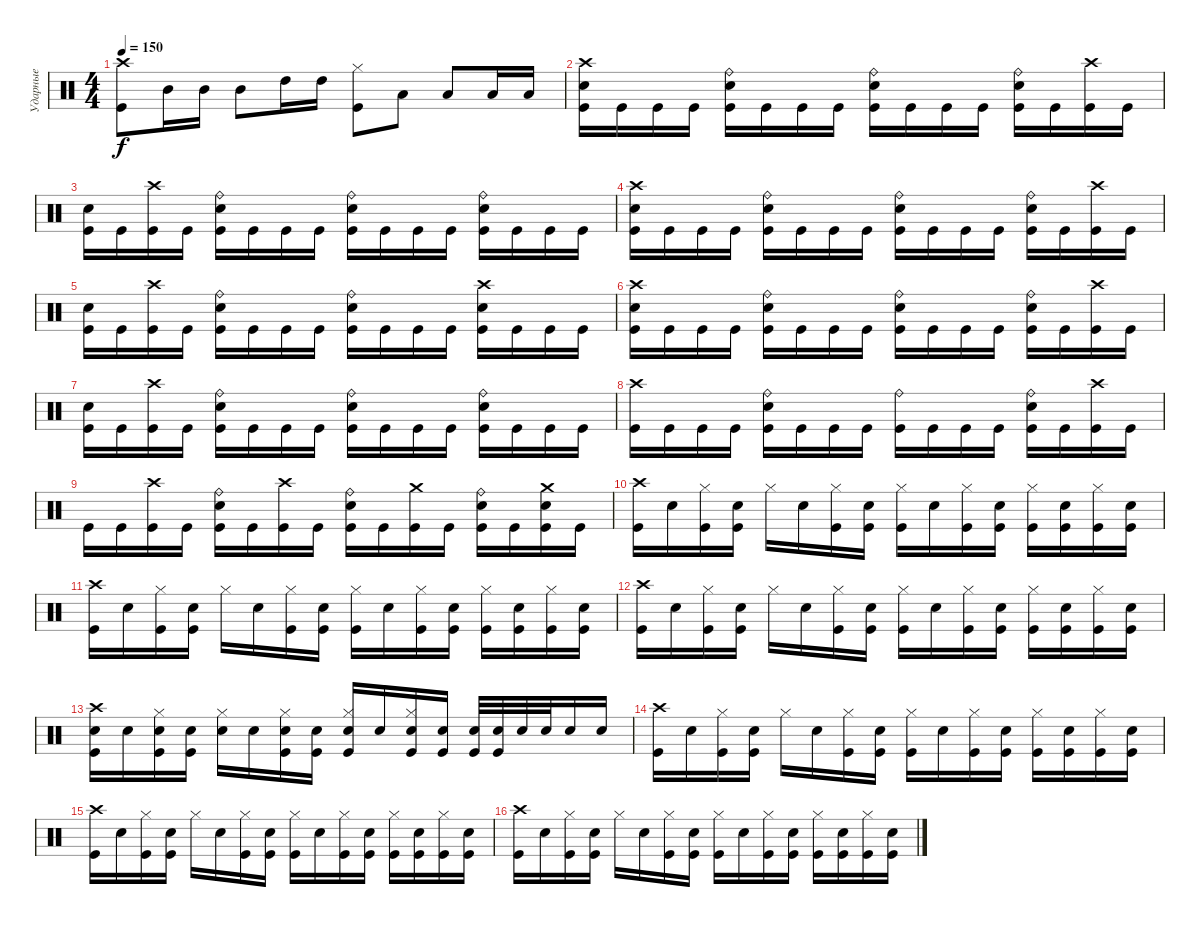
\track ("Ударные" "Ударные") {instrument percussion}
\staff {score}
\articulation defaults
\ts (4 4)
\tempo 150
\clef neutral
\ks c
("Crash high (hit)" "Kick (hit)").8{dy f} "Mid Tom (hit)".16 "Mid Tom (hit)".16 "Mid Tom (hit)".8 "High Tom (hit)".16 "High Tom (hit)".16 ("Hi-Hat (closed)" "Kick (hit)").8 "Low Tom (hit)".8 "Low Tom (hit)".8 "Low Tom (hit)".16 "Low Tom (hit)".16 |
("Crash high (hit)" "Electric Snare (hit)" "Kick (hit)").16 "Kick (hit)".16 "Kick (hit)".16 "Kick (hit)".16 ("Ride (bell)" "Electric Snare (hit)" "Kick (hit)").16 "Kick (hit)".16 "Kick (hit)".16 "Kick (hit)".16 ("Ride (bell)" "Electric Snare (hit)" "Kick (hit)").16 "Kick (hit)".16 "Kick (hit)".16 "Kick (hit)".16 ("Ride (bell)" "Electric Snare (hit)" "Kick (hit)").16 "Kick (hit)".16 ("Crash high (hit)" "Kick (hit)").16 "Kick (hit)".16 |
("Electric Snare (hit)" "Kick (hit)").16 "Kick (hit)".16 ("Crash high (hit)" "Kick (hit)").16 "Kick (hit)".16 ("Ride (bell)" "Electric Snare (hit)" "Kick (hit)").16 "Kick (hit)".16 "Kick (hit)".16 "Kick (hit)".16 ("Ride (bell)" "Electric Snare (hit)" "Kick (hit)").16 "Kick (hit)".16 "Kick (hit)".16 "Kick (hit)".16 ("Ride (bell)" "Electric Snare (hit)" "Kick (hit)").16 "Kick (hit)".16 "Kick (hit)".16 "Kick (hit)".16 |
("Crash high (hit)" "Electric Snare (hit)" "Kick (hit)").16 "Kick (hit)".16 "Kick (hit)".16 "Kick (hit)".16 ("Ride (bell)" "Electric Snare (hit)" "Kick (hit)").16 "Kick (hit)".16 "Kick (hit)".16 "Kick (hit)".16 ("Ride (bell)" "Electric Snare (hit)" "Kick (hit)").16 "Kick (hit)".16 "Kick (hit)".16 "Kick (hit)".16 ("Ride (bell)" "Electric Snare (hit)" "Kick (hit)").16 "Kick (hit)".16 ("Crash high (hit)" "Kick (hit)").16 "Kick (hit)".16 |
("Electric Snare (hit)" "Kick (hit)").16 "Kick (hit)".16 ("Crash high (hit)" "Kick (hit)").16 "Kick (hit)".16 ("Ride (bell)" "Electric Snare (hit)" "Kick (hit)").16 "Kick (hit)".16 "Kick (hit)".16 "Kick (hit)".16 ("Ride (bell)" "Electric Snare (hit)" "Kick (hit)").16 "Kick (hit)".16 "Kick (hit)".16 "Kick (hit)".16 ("Crash high (hit)" "Electric Snare (hit)" "Kick (hit)").16 "Kick (hit)".16 "Kick (hit)".16 "Kick (hit)".16 |
("Crash high (hit)" "Electric Snare (hit)" "Kick (hit)").16 "Kick (hit)".16 "Kick (hit)".16 "Kick (hit)".16 ("Ride (bell)" "Electric Snare (hit)" "Kick (hit)").16 "Kick (hit)".16 "Kick (hit)".16 "Kick (hit)".16 ("Ride (bell)" "Electric Snare (hit)" "Kick (hit)").16 "Kick (hit)".16 "Kick (hit)".16 "Kick (hit)".16 ("Ride (bell)" "Electric Snare (hit)" "Kick (hit)").16 "Kick (hit)".16 ("Crash high (hit)" "Kick (hit)").16 "Kick (hit)".16 |
("Electric Snare (hit)" "Kick (hit)").16 "Kick (hit)".16 ("Crash high (hit)" "Kick (hit)").16 "Kick (hit)".16 ("Ride (bell)" "Electric Snare (hit)" "Kick (hit)").16 "Kick (hit)".16 "Kick (hit)".16 "Kick (hit)".16 ("Ride (bell)" "Electric Snare (hit)" "Kick (hit)").16 "Kick (hit)".16 "Kick (hit)".16 "Kick (hit)".16 ("Ride (bell)" "Electric Snare (hit)" "Kick (hit)").16 "Kick (hit)".16 "Kick (hit)".16 "Kick (hit)".16 |
("Crash high (hit)" "Kick (hit)").16 "Kick (hit)".16 "Kick (hit)".16 "Kick (hit)".16 ("Ride (bell)" "Electric Snare (hit)" "Kick (hit)").16 "Kick (hit)".16 "Kick (hit)".16 "Kick (hit)".16 ("Ride (bell)" "Kick (hit)").16 "Kick (hit)".16 "Kick (hit)".16 "Kick (hit)".16 ("Ride (bell)" "Electric Snare (hit)" "Kick (hit)").16 "Kick (hit)".16 ("Crash high (hit)" "Kick (hit)").16 "Kick (hit)".16 |
"Kick (hit)".16 "Kick (hit)".16 ("Crash high (hit)" "Kick (hit)").16 "Kick (hit)".16 ("Ride (bell)" "Electric Snare (hit)" "Kick (hit)").16 "Kick (hit)".16 ("Crash high (hit)" "Kick (hit)").16 "Kick (hit)".16 ("Ride (bell)" "Electric Snare (hit)" "Kick (hit)").16 "Kick (hit)".16 ("Crash medium (hit)" "Kick (hit)").16 "Kick (hit)".16 ("Ride (bell)" "Electric Snare (hit)" "Kick (hit)").16 "Kick (hit)".16 ("Crash medium (hit)" "Electric Snare (hit)" "Kick (hit)").16 "Kick (hit)".16 |
("Crash high (hit)" "Kick (hit)").16 "Electric Snare (hit)".16 ("Hi-Hat (closed)" "Kick (hit)").16 ("Electric Snare (hit)" "Kick (hit)").16 "Hi-Hat (closed)".16 "Electric Snare (hit)".16 ("Hi-Hat (closed)" "Kick (hit)").16 ("Electric Snare (hit)" "Kick (hit)").16 ("Hi-Hat (closed)" "Kick (hit)").16 "Electric Snare (hit)".16 ("Hi-Hat (closed)" "Kick (hit)").16 ("Electric Snare (hit)" "Kick (hit)").16 ("Hi-Hat (closed)" "Kick (hit)").16 ("Electric Snare (hit)" "Kick (hit)").16 ("Hi-Hat (closed)" "Kick (hit)").16 ("Electric Snare (hit)" "Kick (hit)").16 |
("Crash high (hit)" "Kick (hit)").16 "Electric Snare (hit)".16 ("Hi-Hat (closed)" "Kick (hit)").16 ("Electric Snare (hit)" "Kick (hit)").16 "Hi-Hat (closed)".16 "Electric Snare (hit)".16 ("Hi-Hat (closed)" "Kick (hit)").16 ("Electric Snare (hit)" "Kick (hit)").16 ("Hi-Hat (closed)" "Kick (hit)").16 "Electric Snare (hit)".16 ("Hi-Hat (closed)" "Kick (hit)").16 ("Electric Snare (hit)" "Kick (hit)").16 ("Hi-Hat (closed)" "Kick (hit)").16 ("Electric Snare (hit)" "Kick (hit)").16 ("Hi-Hat (closed)" "Kick (hit)").16 ("Electric Snare (hit)" "Kick (hit)").16 |
("Crash high (hit)" "Kick (hit)").16 "Electric Snare (hit)".16 ("Hi-Hat (closed)" "Kick (hit)").16 ("Electric Snare (hit)" "Kick (hit)").16 "Hi-Hat (closed)".16 "Electric Snare (hit)".16 ("Hi-Hat (closed)" "Kick (hit)").16 ("Electric Snare (hit)" "Kick (hit)").16 ("Hi-Hat (closed)" "Kick (hit)").16 "Electric Snare (hit)".16 ("Hi-Hat (closed)" "Kick (hit)").16 ("Electric Snare (hit)" "Kick (hit)").16 ("Hi-Hat (closed)" "Kick (hit)").16 ("Electric Snare (hit)" "Kick (hit)").16 ("Hi-Hat (closed)" "Kick (hit)").16 ("Electric Snare (hit)" "Kick (hit)").16 |
("Crash high (hit)" "Electric Snare (hit)" "Kick (hit)").16 "Electric Snare (hit)".16 ("Hi-Hat (closed)" "Electric Snare (hit)" "Kick (hit)").16 ("Electric Snare (hit)" "Kick (hit)").16 ("Hi-Hat (closed)" "Electric Snare (hit)").16 "Electric Snare (hit)".16 ("Hi-Hat (closed)" "Electric Snare (hit)" "Kick (hit)").16 ("Electric Snare (hit)" "Kick (hit)").16 ("Hi-Hat (closed)" "Electric Snare (hit)" "Kick (hit)").16 "Electric Snare (hit)".16 ("Hi-Hat (closed)" "Electric Snare (hit)" "Kick (hit)").16 ("Electric Snare (hit)" "Kick (hit)").16 ("Electric Snare (hit)" "Kick (hit)").32 ("Electric Snare (hit)" "Kick (hit)").32 "Electric Snare (hit)".32 "Electric Snare (hit)".32 "Electric Snare (hit)".16 "Electric Snare (hit)".16 |
("Crash high (hit)" "Kick (hit)").16 "Electric Snare (hit)".16 ("Hi-Hat (closed)" "Kick (hit)").16 ("Electric Snare (hit)" "Kick (hit)").16 "Hi-Hat (closed)".16 "Electric Snare (hit)".16 ("Hi-Hat (closed)" "Kick (hit)").16 ("Electric Snare (hit)" "Kick (hit)").16 ("Hi-Hat (closed)" "Kick (hit)").16 "Electric Snare (hit)".16 ("Hi-Hat (closed)" "Kick (hit)").16 ("Electric Snare (hit)" "Kick (hit)").16 ("Hi-Hat (closed)" "Kick (hit)").16 ("Electric Snare (hit)" "Kick (hit)").16 ("Hi-Hat (closed)" "Kick (hit)").16 ("Electric Snare (hit)" "Kick (hit)").16 |
("Crash high (hit)" "Kick (hit)").16 "Electric Snare (hit)".16 ("Hi-Hat (closed)" "Kick (hit)").16 ("Electric Snare (hit)" "Kick (hit)").16 "Hi-Hat (closed)".16 "Electric Snare (hit)".16 ("Hi-Hat (closed)" "Kick (hit)").16 ("Electric Snare (hit)" "Kick (hit)").16 ("Hi-Hat (closed)" "Kick (hit)").16 "Electric Snare (hit)".16 ("Hi-Hat (closed)" "Kick (hit)").16 ("Electric Snare (hit)" "Kick (hit)").16 ("Hi-Hat (closed)" "Kick (hit)").16 ("Electric Snare (hit)" "Kick (hit)").16 ("Hi-Hat (closed)" "Kick (hit)").16 ("Electric Snare (hit)" "Kick (hit)").16 |
("Crash high (hit)" "Kick (hit)").16 "Electric Snare (hit)".16 ("Hi-Hat (closed)" "Kick (hit)").16 ("Electric Snare (hit)" "Kick (hit)").16 "Hi-Hat (closed)".16 "Electric Snare (hit)".16 ("Hi-Hat (closed)" "Kick (hit)").16 ("Electric Snare (hit)" "Kick (hit)").16 ("Hi-Hat (closed)" "Kick (hit)").16 "Electric Snare (hit)".16 ("Hi-Hat (closed)" "Kick (hit)").16 ("Electric Snare (hit)" "Kick (hit)").16 ("Hi-Hat (closed)" "Kick (hit)").16 ("Electric Snare (hit)" "Kick (hit)").16 ("Hi-Hat (closed)" "Kick (hit)").16 ("Electric Snare (hit)" "Kick (hit)").16
